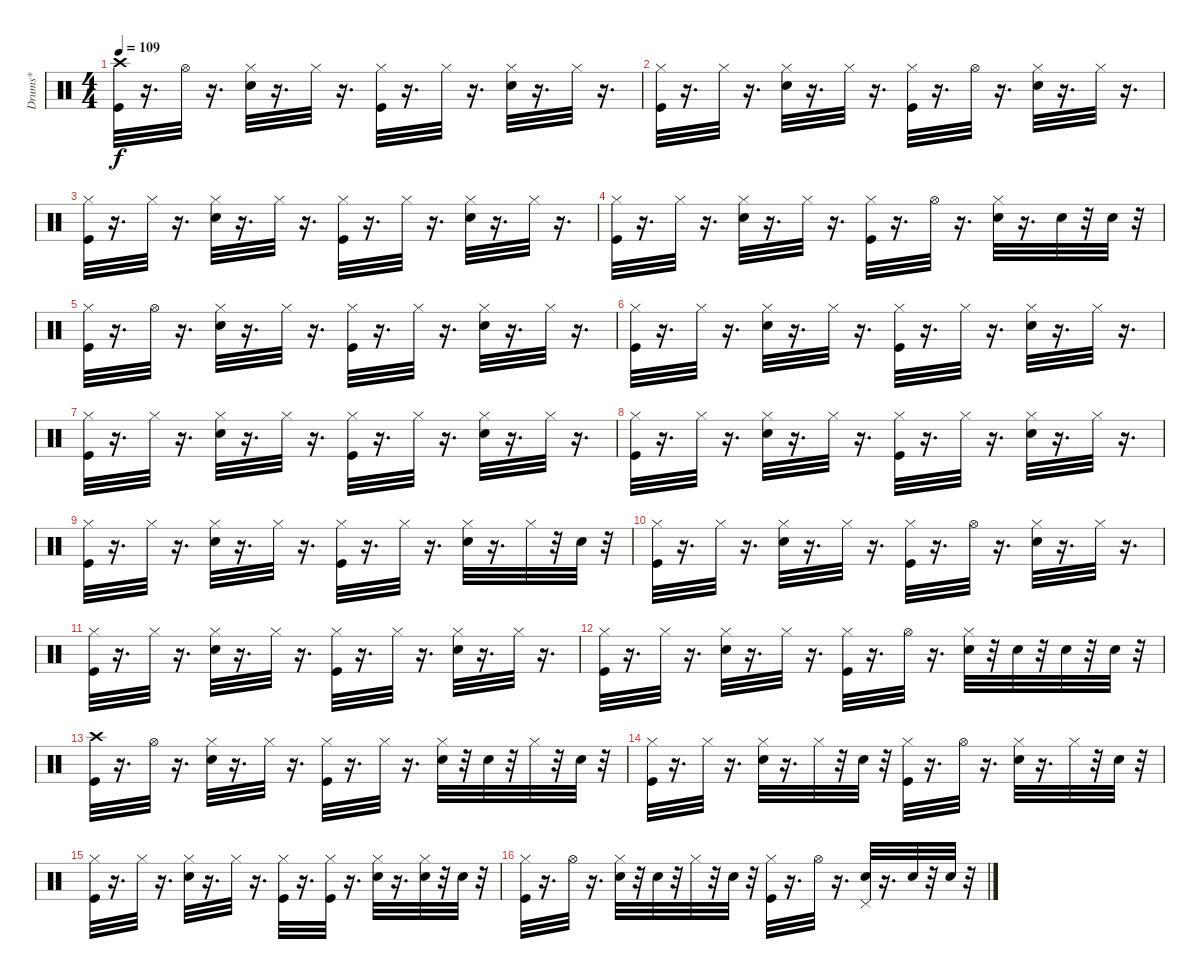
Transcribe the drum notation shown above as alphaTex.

\track ("Drums*" "Drums*") {instrument percussion}
\staff {score}
\articulation defaults
\ts (4 4)
\tempo 109
\clef neutral
\ks c
("Kick (hit)" "Crash high (hit)").32{dy f} r.16{d} "Hi-Hat (open)".32 r.16{d} ("Snare (hit) 2" "Hi-Hat (closed)").32 r.16{d} "Hi-Hat (closed)".32 r.16{d} ("Kick (hit)" "Hi-Hat (closed)").32 r.16{d} "Hi-Hat (closed)".32 r.16{d} ("Snare (hit) 2" "Hi-Hat (closed)").32 r.16{d} "Hi-Hat (closed)".32 r.16{d} |
("Kick (hit)" "Hi-Hat (closed)").32 r.16{d} "Hi-Hat (closed)".32 r.16{d} ("Snare (hit) 2" "Hi-Hat (closed)").32 r.16{d} "Hi-Hat (closed)".32 r.16{d} ("Kick (hit)" "Hi-Hat (closed)").32 r.16{d} "Hi-Hat (open)".32 r.16{d} ("Snare (hit) 2" "Hi-Hat (closed)").32 r.16{d} "Hi-Hat (closed)".32 r.16{d} |
("Kick (hit)" "Hi-Hat (closed)").32 r.16{d} "Hi-Hat (closed)".32 r.16{d} ("Snare (hit) 2" "Hi-Hat (closed)").32 r.16{d} "Hi-Hat (closed)".32 r.16{d} ("Kick (hit)" "Hi-Hat (closed)").32 r.16{d} "Hi-Hat (closed)".32 r.16{d} ("Snare (hit) 2" "Hi-Hat (closed)").32 r.16{d} "Hi-Hat (closed)".32 r.16{d} |
("Kick (hit)" "Hi-Hat (closed)").32 r.16{d} "Hi-Hat (closed)".32 r.16{d} ("Snare (hit) 2" "Hi-Hat (closed)").32 r.16{d} "Hi-Hat (closed)".32 r.16{d} ("Kick (hit)" "Hi-Hat (closed)").32 r.16{d} "Hi-Hat (open)".32 r.16{d} ("Snare (hit) 2" "Hi-Hat (closed)").32 r.16{d} "Snare (hit) 2".32 r.32 "Snare (hit) 2".32 r.32 |
("Kick (hit)" "Hi-Hat (closed)").32 r.16{d} "Hi-Hat (open)".32 r.16{d} ("Snare (hit) 2" "Hi-Hat (closed)").32 r.16{d} "Hi-Hat (closed)".32 r.16{d} ("Kick (hit)" "Hi-Hat (closed)").32 r.16{d} "Hi-Hat (closed)".32 r.16{d} ("Snare (hit) 2" "Hi-Hat (closed)").32 r.16{d} "Hi-Hat (closed)".32 r.16{d} |
("Kick (hit)" "Hi-Hat (closed)").32 r.16{d} "Hi-Hat (closed)".32 r.16{d} ("Snare (hit) 2" "Hi-Hat (closed)").32 r.16{d} "Hi-Hat (closed)".32 r.16{d} ("Kick (hit)" "Hi-Hat (closed)").32 r.16{d} "Hi-Hat (closed)".32 r.16{d} ("Snare (hit) 2" "Hi-Hat (closed)").32 r.16{d} "Hi-Hat (closed)".32 r.16{d} |
("Kick (hit)" "Hi-Hat (closed)").32 r.16{d} "Hi-Hat (closed)".32 r.16{d} ("Snare (hit) 2" "Hi-Hat (closed)").32 r.16{d} "Hi-Hat (closed)".32 r.16{d} ("Kick (hit)" "Hi-Hat (closed)").32 r.16{d} "Hi-Hat (closed)".32 r.16{d} ("Snare (hit) 2" "Hi-Hat (closed)").32 r.16{d} "Hi-Hat (closed)".32 r.16{d} |
("Kick (hit)" "Hi-Hat (closed)").32 r.16{d} "Hi-Hat (closed)".32 r.16{d} ("Snare (hit) 2" "Hi-Hat (closed)").32 r.16{d} "Hi-Hat (closed)".32 r.16{d} ("Kick (hit)" "Hi-Hat (closed)").32 r.16{d} "Hi-Hat (closed)".32 r.16{d} ("Snare (hit) 2" "Hi-Hat (closed)").32 r.16{d} "Hi-Hat (closed)".32 r.16{d} |
("Kick (hit)" "Hi-Hat (closed)").32 r.16{d} "Hi-Hat (closed)".32 r.16{d} ("Snare (hit) 2" "Hi-Hat (closed)").32 r.16{d} "Hi-Hat (closed)".32 r.16{d} ("Kick (hit)" "Hi-Hat (closed)").32 r.16{d} "Hi-Hat (closed)".32 r.16{d} ("Snare (hit) 2" "Hi-Hat (closed)").32 r.16{d} "Hi-Hat (closed)".32 r.32 "Snare (hit) 2".32 r.32 |
("Kick (hit)" "Hi-Hat (closed)").32 r.16{d} "Hi-Hat (closed)".32 r.16{d} ("Snare (hit) 2" "Hi-Hat (closed)").32 r.16{d} "Hi-Hat (closed)".32 r.16{d} ("Kick (hit)" "Hi-Hat (closed)").32 r.16{d} "Hi-Hat (open)".32 r.16{d} ("Snare (hit) 2" "Hi-Hat (closed)").32 r.16{d} "Hi-Hat (closed)".32 r.16{d} |
("Hi-Hat (closed)" "Kick (hit)").32 r.16{d} "Hi-Hat (closed)".32 r.16{d} ("Hi-Hat (closed)" "Snare (hit) 2").32 r.16{d} "Hi-Hat (closed)".32 r.16{d} ("Hi-Hat (closed)" "Kick (hit)").32 r.16{d} "Hi-Hat (closed)".32 r.16{d} ("Hi-Hat (closed)" "Snare (hit) 2").32 r.16{d} "Hi-Hat (closed)".32 r.16{d} |
("Hi-Hat (closed)" "Kick (hit)").32 r.16{d} "Hi-Hat (closed)".32 r.16{d} ("Hi-Hat (closed)" "Snare (hit) 2").32 r.16{d} "Hi-Hat (closed)".32 r.16{d} ("Hi-Hat (closed)" "Kick (hit)").32 r.16{d} "Hi-Hat (open)".32 r.16{d} ("Hi-Hat (closed)" "Snare (hit) 2").32 r.32 "Snare (hit) 2".32 r.32 "Snare (hit) 2".32 r.32 "Snare (hit) 2".32 r.32 |
("Kick (hit)" "Crash high (hit)").32 r.16{d} "Hi-Hat (open)".32 r.16{d} ("Snare (hit) 2" "Hi-Hat (closed)").32 r.16{d} "Hi-Hat (closed)".32 r.16{d} ("Kick (hit)" "Hi-Hat (closed)").32 r.16{d} "Hi-Hat (closed)".32 r.16{d} ("Snare (hit) 2" "Hi-Hat (closed)").32 r.32 "Snare (hit) 2".32 r.32 "Hi-Hat (closed)".32 r.32 "Snare (hit) 2".32 r.32 |
("Hi-Hat (closed)" "Kick (hit)").32 r.16{d} "Hi-Hat (closed)".32 r.16{d} ("Hi-Hat (closed)" "Snare (hit) 2").32 r.16{d} "Hi-Hat (closed)".32 r.32 "Snare (hit) 2".32 r.32 ("Hi-Hat (closed)" "Kick (hit)").32 r.16{d} "Hi-Hat (open)".32 r.16{d} ("Hi-Hat (closed)" "Snare (hit) 2").32 r.16{d} "Hi-Hat (closed)".32 r.32 "Snare (hit) 2".32 r.32 |
("Hi-Hat (closed)" "Kick (hit)").32 r.16{d} "Hi-Hat (closed)".32 r.16{d} ("Hi-Hat (closed)" "Snare (hit) 2").32 r.16{d} "Hi-Hat (closed)".32 r.16{d} ("Hi-Hat (closed)" "Kick (hit)").32 r.16{d} ("Hi-Hat (closed)" "Kick (hit)").32 r.16{d} ("Hi-Hat (closed)" "Snare (hit) 2").32 r.16{d} ("Hi-Hat (closed)" "Snare (hit) 2").32 r.32 "Snare (hit) 2".32 r.32 |
("Hi-Hat (closed)" "Kick (hit)").32 r.16{d} "Hi-Hat (open)".32 r.16{d} ("Hi-Hat (closed)" "Snare (hit) 2").32 r.32 "Snare (hit) 2".32 r.32 "Hi-Hat (closed)".32 r.32 "Snare (hit) 2".32 r.32 ("Hi-Hat (closed)" "Kick (hit)").32 r.16{d} "Hi-Hat (open)".32 r.16{d} ("Pedal Hi-Hat (hit)" "Snare (hit) 2").32 r.16{d} "Snare (hit) 2".32 r.32 "Snare (hit) 2".32 r.32
